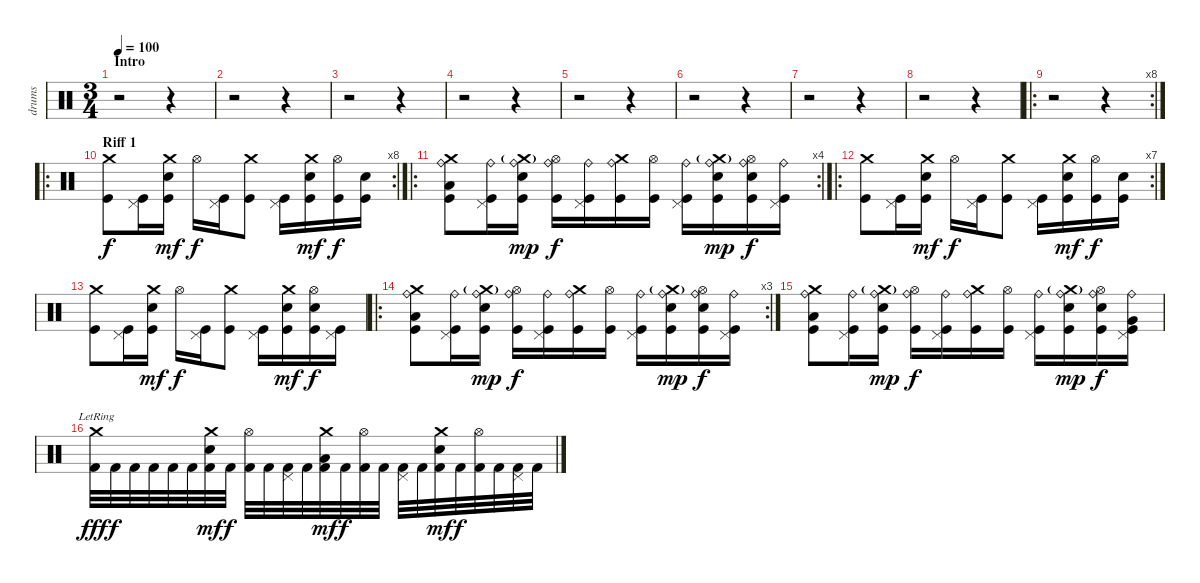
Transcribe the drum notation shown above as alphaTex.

\track ("drums" "drums") {instrument percussion}
\staff {score}
\articulation defaults
\ts (3 4)
\section ("" "Intro")
\tempo 100
\clef neutral
\ks c
r.2{dy f} r.4 |
r.2 r.4 |
r.2 r.4 |
r.2 r.4 |
r.2 r.4 |
r.2 r.4 |
r.2 r.4 |
r.2 r.4 |
\ro
\rc 8
r.2 r.4 |
\ro
\rc 8
\section ("" "Riff 1")
("Crash medium (hit)" "Kick (hit)").8 ("Pedal Hi-Hat (hit)" "Kick (hit)").16 ("Crash medium (hit)" "Snare (hit) 2" "Kick (hit)").16{dy mf} "Hi-Hat (open)".16{dy f} ("Pedal Hi-Hat (hit)" "Kick (hit)").16 ("Crash medium (hit)" "Kick (hit)").8 ("Pedal Hi-Hat (hit)" "Kick (hit)").16 ("Crash medium (hit)" "Snare (hit) 2" "Kick (hit)").16{dy mf} ("Hi-Hat (open)" "Kick (hit)").16{dy f} ("Snare (hit) 2" "Kick (hit)").16 |
\ro
\rc 4
("Ride (bell)" "Crash medium (hit)" "Low Floor Tom (hit)" "Kick (hit)").8 ("Ride (bell)" "Pedal Hi-Hat (hit)" "Kick (hit)").16 ("Ride (bell)" "Crash medium (hit)"{g} "Snare (hit) 2" "Kick (hit)").16{dy mp} ("Ride (bell)" "Hi-Hat (open)" "Kick (hit)").16{dy f} ("Ride (bell)" "Pedal Hi-Hat (hit)" "Kick (hit)").16 ("Ride (bell)" "Crash medium (hit)" "Kick (hit)").16 ("Hi-Hat (open)" "Kick (hit)").16 ("Ride (bell)" "Pedal Hi-Hat (hit)" "Kick (hit)").16 ("Ride (bell)" "Crash medium (hit)"{g} "Snare (hit) 2" "Kick (hit)").16{dy mp} ("Ride (bell)" "Hi-Hat (open)" "Snare (hit) 2" "Kick (hit)").16{dy f} ("Ride (bell)" "Pedal Hi-Hat (hit)" "Kick (hit)").16 |
\ro
\rc 7
("Crash medium (hit)" "Kick (hit)").8 ("Pedal Hi-Hat (hit)" "Kick (hit)").16 ("Crash medium (hit)" "Snare (hit) 2" "Kick (hit)").16{dy mf} "Hi-Hat (open)".16{dy f} ("Pedal Hi-Hat (hit)" "Kick (hit)").16 ("Crash medium (hit)" "Kick (hit)").8 ("Pedal Hi-Hat (hit)" "Kick (hit)").16 ("Crash medium (hit)" "Snare (hit) 2" "Kick (hit)").16{dy mf} ("Hi-Hat (open)" "Kick (hit)").16{dy f} ("Snare (hit) 2" "Kick (hit)").16 |
("Crash medium (hit)" "Kick (hit)").8 ("Pedal Hi-Hat (hit)" "Kick (hit)").16 ("Crash medium (hit)" "Snare (hit) 2" "Kick (hit)").16{dy mf} "Hi-Hat (open)".16{dy f} ("Pedal Hi-Hat (hit)" "Kick (hit)").16 ("Crash medium (hit)" "Kick (hit)").8 ("Pedal Hi-Hat (hit)" "Kick (hit)").16 ("Crash medium (hit)" "Snare (hit) 2" "Kick (hit)").16{dy mf} ("Hi-Hat (open)" "Snare (hit) 2" "Kick (hit)").16{dy f} ("Pedal Hi-Hat (hit)" "Kick (hit)").16 |
\ro
\rc 3
("Ride (bell)" "Crash medium (hit)" "Low Floor Tom (hit)" "Kick (hit)").8 ("Ride (bell)" "Pedal Hi-Hat (hit)" "Kick (hit)").16 ("Ride (bell)" "Crash medium (hit)"{g} "Snare (hit) 2" "Kick (hit)").16{dy mp} ("Ride (bell)" "Hi-Hat (open)" "Kick (hit)").16{dy f} ("Ride (bell)" "Pedal Hi-Hat (hit)" "Kick (hit)").16 ("Ride (bell)" "Crash medium (hit)" "Kick (hit)").16 ("Hi-Hat (open)" "Kick (hit)").16 ("Ride (bell)" "Pedal Hi-Hat (hit)" "Kick (hit)").16 ("Ride (bell)" "Crash medium (hit)"{g} "Snare (hit) 2" "Kick (hit)").16{dy mp} ("Ride (bell)" "Hi-Hat (open)" "Snare (hit) 2" "Kick (hit)").16{dy f} ("Ride (bell)" "Pedal Hi-Hat (hit)" "Kick (hit)").16 |
("Ride (bell)" "Crash medium (hit)" "Low Floor Tom (hit)" "Kick (hit)").8 ("Ride (bell)" "Pedal Hi-Hat (hit)" "Kick (hit)").16 ("Ride (bell)" "Crash medium (hit)"{g} "Snare (hit) 2" "Kick (hit)").16{dy mp} ("Ride (bell)" "Hi-Hat (open)" "Kick (hit)").16{dy f} ("Ride (bell)" "Pedal Hi-Hat (hit)" "Kick (hit)").16 ("Ride (bell)" "Crash medium (hit)" "Kick (hit)").16 ("Hi-Hat (open)" "Kick (hit)").16 ("Ride (bell)" "Pedal Hi-Hat (hit)" "Kick (hit)").16 ("Ride (bell)" "Crash medium (hit)"{g} "Snare (hit) 2" "Kick (hit)").16{dy mp} ("Ride (bell)" "Hi-Hat (open)" "Snare (hit) 2" "Kick (hit)").16{dy f} ("Ride (bell)" "Pedal Hi-Hat (hit)" "Very Low Tom (hit)" "Kick (hit)").16 |
("Crash medium (hit)"{lr} "Kick (hit) 2").32{dy fff} "Kick (hit) 2".32{dy f} "Kick (hit) 2".32 "Kick (hit) 2".32 "Kick (hit) 2".32 "Kick (hit) 2".32 ("Crash medium (hit)" "Snare (hit) 2" "Kick (hit) 2").32{dy mf} "Kick (hit) 2".32{dy f} ("Hi-Hat (open)" "Kick (hit) 2").32 "Kick (hit) 2".32 ("Pedal Hi-Hat (hit)" "Kick (hit) 2").32 "Kick (hit) 2".32 ("Crash medium (hit)" "Low Floor Tom (hit)" "Kick (hit) 2").32{dy mf} "Kick (hit) 2".32{dy f} ("Hi-Hat (open)" "Kick (hit) 2").32 "Kick (hit) 2".32 ("Pedal Hi-Hat (hit)" "Kick (hit) 2").32 "Kick (hit) 2".32 ("Crash medium (hit)" "Snare (hit) 2" "Kick (hit) 2").32{dy mf} "Kick (hit) 2".32{dy f} ("Hi-Hat (open)" "Kick (hit) 2").32 "Kick (hit) 2".32 ("Pedal Hi-Hat (hit)" "Kick (hit) 2").32 "Kick (hit) 2".32
